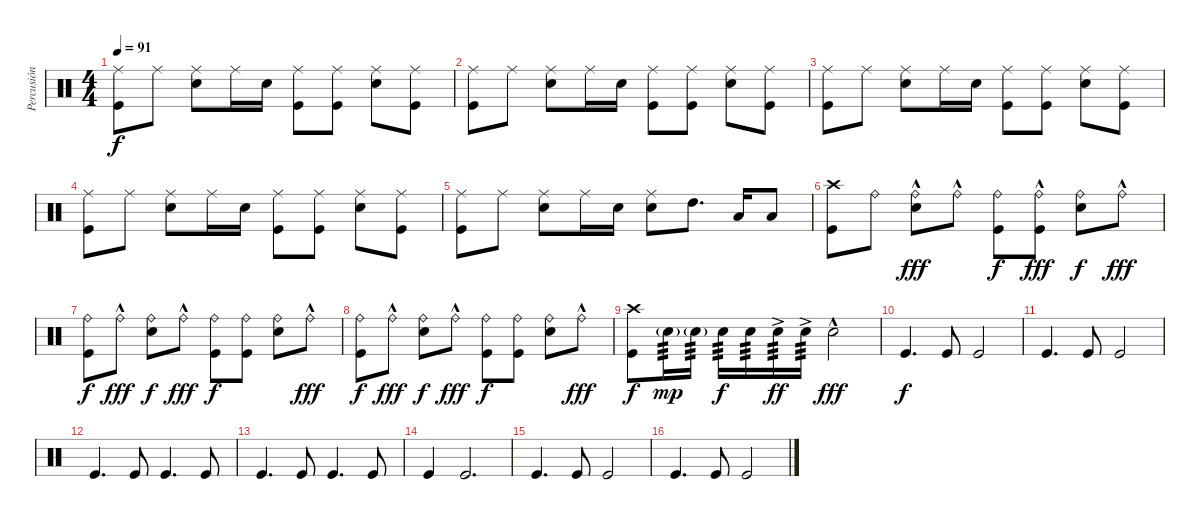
\track ("Percusión" "Percusión") {instrument percussion}
\staff {score}
\articulation defaults
\ts (4 4)
\tempo 91
\clef neutral
\ks c
("Kick (hit)" "Ride (middle)").8{dy f} "Ride (middle)".8 ("Ride (middle)" "Snare (hit) 2").8 "Ride (middle)".16 "Snare (hit) 2".16 ("Kick (hit)" "Ride (middle)").8 ("Kick (hit)" "Ride (middle)").8 ("Ride (middle)" "Snare (hit) 2").8 ("Kick (hit)" "Ride (middle)").8 |
("Kick (hit)" "Ride (middle)").8 "Ride (middle)".8 ("Ride (middle)" "Snare (hit) 2").8 "Ride (middle)".16 "Snare (hit) 2".16 ("Kick (hit)" "Ride (middle)").8 ("Kick (hit)" "Ride (middle)").8 ("Ride (middle)" "Snare (hit) 2").8 ("Kick (hit)" "Ride (middle)").8 |
("Kick (hit)" "Ride (middle)").8 "Ride (middle)".8 ("Ride (middle)" "Snare (hit) 2").8 "Ride (middle)".16 "Snare (hit) 2".16 ("Kick (hit)" "Ride (middle)").8 ("Kick (hit)" "Ride (middle)").8 ("Ride (middle)" "Snare (hit) 2").8 ("Kick (hit)" "Ride (middle)").8 |
("Kick (hit)" "Ride (middle)").8 "Ride (middle)".8 ("Ride (middle)" "Snare (hit) 2").8 "Ride (middle)".16 "Snare (hit) 2".16 ("Kick (hit)" "Ride (middle)").8 ("Kick (hit)" "Ride (middle)").8 ("Ride (middle)" "Snare (hit) 2").8 ("Kick (hit)" "Ride (middle)").8 |
("Kick (hit)" "Ride (middle)").8 "Ride (middle)".8 ("Ride (middle)" "Snare (hit) 2").8 "Ride (middle)".16 "Snare (hit) 2".16 ("Snare (hit) 2" "Ride (middle)").8 "High Tom (hit)".8{d} "Low Tom (hit)".16 "Low Tom (hit)".8 |
("Crash high (hit)" "Kick (hit)").8 "Ride (bell)".8 ("Ride (bell)"{hac} "Snare (hit) 2").8{dy fff} "Ride (bell)"{hac}.8 ("Ride (bell)" "Kick (hit)").8{dy f} ("Ride (bell)"{hac} "Kick (hit)").8{dy fff} ("Ride (bell)" "Snare (hit) 2").8{dy f} "Ride (bell)"{hac}.8{dy fff} |
("Ride (bell)" "Kick (hit)").8{dy f} "Ride (bell)"{hac}.8{dy fff} ("Ride (bell)" "Snare (hit) 2").8{dy f} "Ride (bell)"{hac}.8{dy fff} ("Ride (bell)" "Kick (hit)").8{dy f} ("Ride (bell)" "Kick (hit)").8 ("Ride (bell)" "Snare (hit) 2").8 "Ride (bell)"{hac}.8{dy fff} |
("Ride (bell)" "Kick (hit)").8{dy f} "Ride (bell)"{hac}.8{dy fff} ("Ride (bell)" "Snare (hit) 2").8{dy f} "Ride (bell)"{hac}.8{dy fff} ("Ride (bell)" "Kick (hit)").8{dy f} ("Ride (bell)" "Kick (hit)").8 ("Ride (bell)" "Snare (hit) 2").8 "Ride (bell)"{hac}.8{dy fff} |
("Kick (hit)" "Crash high (hit)").8{dy f} "Snare (hit) 2"{g}.16{tp 3 dy mp} "Snare (hit) 2"{g}.16{tp 3} "Snare (hit) 2".16{tp 3 dy f} "Snare (hit) 2".16{tp 3} "Snare (hit) 2"{ac}.16{tp 3 dy ff} "Snare (hit) 2"{ac}.16{tp 3} "Snare (hit) 2"{hac}.2{dy fff} |
"Kick (hit)".4{d dy f} "Kick (hit)".8 "Kick (hit)".2 |
"Kick (hit)".4{d} "Kick (hit)".8 "Kick (hit)".2 |
"Kick (hit)".4{d} "Kick (hit)".8 "Kick (hit)".4{d} "Kick (hit)".8 |
"Kick (hit)".4{d} "Kick (hit)".8 "Kick (hit)".4{d} "Kick (hit)".8 |
"Kick (hit)".4 "Kick (hit)".2{d} |
"Kick (hit)".4{d} "Kick (hit)".8 "Kick (hit)".2 |
"Kick (hit)".4{d} "Kick (hit)".8 "Kick (hit)".2
